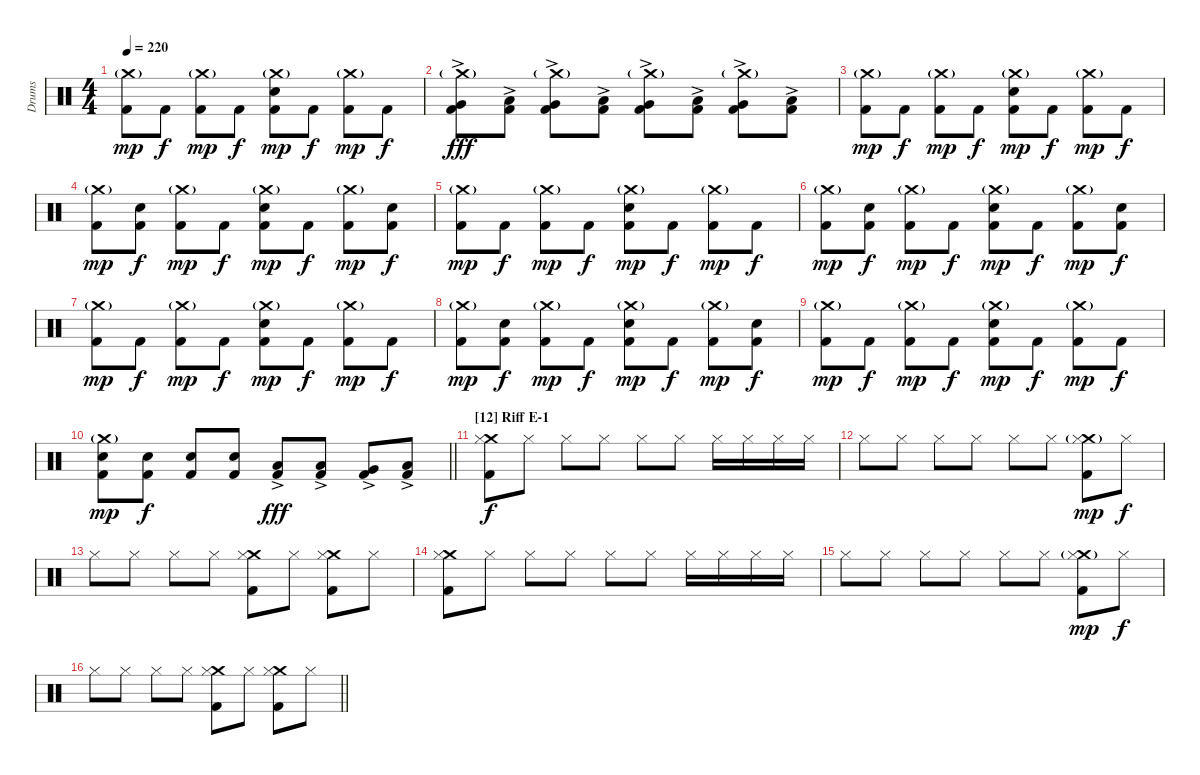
\track ("Drums" "Drums") {instrument percussion}
\staff {score}
\articulation defaults
\ts (4 4)
\tempo 220
\clef neutral
\ks c
("Crash medium (hit)"{g} "Kick (hit) 2").8{dy mp} "Kick (hit) 2".8{dy f} ("Crash medium (hit)"{g} "Kick (hit) 2").8{dy mp} "Kick (hit) 2".8{dy f} ("Crash medium (hit)"{g} "Snare (hit) 2" "Kick (hit) 2").8{dy mp} "Kick (hit) 2".8{dy f} ("Crash medium (hit)"{g} "Kick (hit) 2").8{dy mp} "Kick (hit) 2".8{dy f} |
("Crash medium (hit)"{g} "Very Low Tom (hit)"{ac} "Kick (hit) 2").8{dy fff} ("Low Floor Tom (hit)"{ac} "Kick (hit) 2").8 ("Crash medium (hit)"{g} "Very Low Tom (hit)"{ac} "Kick (hit) 2").8 ("Low Tom (hit)"{ac} "Kick (hit) 2").8 ("Crash medium (hit)"{g} "Very Low Tom (hit)"{ac} "Kick (hit) 2").8 ("Low Floor Tom (hit)"{ac} "Kick (hit) 2").8 ("Crash medium (hit)"{g} "Very Low Tom (hit)"{ac} "Kick (hit) 2").8 ("Low Tom (hit)"{ac} "Kick (hit) 2").8 |
("Crash medium (hit)"{g} "Kick (hit) 2").8{dy mp} "Kick (hit) 2".8{dy f} ("Crash medium (hit)"{g} "Kick (hit) 2").8{dy mp} "Kick (hit) 2".8{dy f} ("Crash medium (hit)"{g} "Snare (hit) 2" "Kick (hit) 2").8{dy mp} "Kick (hit) 2".8{dy f} ("Crash medium (hit)"{g} "Kick (hit) 2").8{dy mp} "Kick (hit) 2".8{dy f} |
("Crash medium (hit)"{g} "Kick (hit) 2").8{dy mp} ("Snare (hit) 2" "Kick (hit) 2").8{dy f} ("Crash medium (hit)"{g} "Kick (hit) 2").8{dy mp} "Kick (hit) 2".8{dy f} ("Crash medium (hit)"{g} "Snare (hit) 2" "Kick (hit) 2").8{dy mp} "Kick (hit) 2".8{dy f} ("Crash medium (hit)"{g} "Kick (hit) 2").8{dy mp} ("Snare (hit) 2" "Kick (hit) 2").8{dy f} |
("Crash medium (hit)"{g} "Kick (hit) 2").8{dy mp} "Kick (hit) 2".8{dy f} ("Crash medium (hit)"{g} "Kick (hit) 2").8{dy mp} "Kick (hit) 2".8{dy f} ("Crash medium (hit)"{g} "Snare (hit) 2" "Kick (hit) 2").8{dy mp} "Kick (hit) 2".8{dy f} ("Crash medium (hit)"{g} "Kick (hit) 2").8{dy mp} "Kick (hit) 2".8{dy f} |
("Crash medium (hit)"{g} "Kick (hit) 2").8{dy mp} ("Snare (hit) 2" "Kick (hit) 2").8{dy f} ("Crash medium (hit)"{g} "Kick (hit) 2").8{dy mp} "Kick (hit) 2".8{dy f} ("Crash medium (hit)"{g} "Snare (hit) 2" "Kick (hit) 2").8{dy mp} "Kick (hit) 2".8{dy f} ("Crash medium (hit)"{g} "Kick (hit) 2").8{dy mp} ("Snare (hit) 2" "Kick (hit) 2").8{dy f} |
("Crash medium (hit)"{g} "Kick (hit) 2").8{dy mp} "Kick (hit) 2".8{dy f} ("Crash medium (hit)"{g} "Kick (hit) 2").8{dy mp} "Kick (hit) 2".8{dy f} ("Crash medium (hit)"{g} "Snare (hit) 2" "Kick (hit) 2").8{dy mp} "Kick (hit) 2".8{dy f} ("Crash medium (hit)"{g} "Kick (hit) 2").8{dy mp} "Kick (hit) 2".8{dy f} |
("Crash medium (hit)"{g} "Kick (hit) 2").8{dy mp} ("Snare (hit) 2" "Kick (hit) 2").8{dy f} ("Crash medium (hit)"{g} "Kick (hit) 2").8{dy mp} "Kick (hit) 2".8{dy f} ("Crash medium (hit)"{g} "Snare (hit) 2" "Kick (hit) 2").8{dy mp} "Kick (hit) 2".8{dy f} ("Crash medium (hit)"{g} "Kick (hit) 2").8{dy mp} ("Snare (hit) 2" "Kick (hit) 2").8{dy f} |
("Crash medium (hit)"{g} "Kick (hit) 2").8{dy mp} "Kick (hit) 2".8{dy f} ("Crash medium (hit)"{g} "Kick (hit) 2").8{dy mp} "Kick (hit) 2".8{dy f} ("Crash medium (hit)"{g} "Snare (hit) 2" "Kick (hit) 2").8{dy mp} "Kick (hit) 2".8{dy f} ("Crash medium (hit)"{g} "Kick (hit) 2").8{dy mp} "Kick (hit) 2".8{dy f} |
\barLineRight lightlight
("Crash medium (hit)"{g} "Snare (hit) 2" "Kick (hit) 2").8{dy mp} ("Snare (hit) 2" "Kick (hit) 2").8{dy f} ("Snare (hit) 2" "Kick (hit) 2").8 ("Snare (hit) 2" "Kick (hit) 2").8 ("Low Tom (hit)"{ac} "Kick (hit) 2").8{dy fff} ("Low Tom (hit)"{ac} "Kick (hit) 2").8 ("Very Low Tom (hit)"{ac} "Kick (hit) 2").8 ("Low Floor Tom (hit)"{ac} "Kick (hit) 2").8 |
\section ("" "[12] Riff E-1")
("Crash medium (hit)" "Hi-Hat (closed)" "Kick (hit) 2").8{dy f} "Hi-Hat (closed)".8 "Hi-Hat (closed)".8 "Hi-Hat (closed)".8 "Hi-Hat (closed)".8 "Hi-Hat (closed)".8 "Hi-Hat (closed)".16 "Hi-Hat (closed)".16 "Hi-Hat (closed)".16 "Hi-Hat (closed)".16 |
"Hi-Hat (closed)".8 "Hi-Hat (closed)".8 "Hi-Hat (closed)".8 "Hi-Hat (closed)".8 "Hi-Hat (closed)".8 "Hi-Hat (closed)".8 ("Crash medium (hit)"{g} "Hi-Hat (closed)" "Kick (hit) 2").8{dy mp} "Hi-Hat (closed)".8{dy f} |
"Hi-Hat (closed)".8 "Hi-Hat (closed)".8 "Hi-Hat (closed)".8 "Hi-Hat (closed)".8 ("Crash medium (hit)" "Hi-Hat (closed)" "Kick (hit) 2").8 "Hi-Hat (closed)".8 ("Crash medium (hit)" "Hi-Hat (closed)" "Kick (hit) 2").8 "Hi-Hat (closed)".8 |
("Crash medium (hit)" "Hi-Hat (closed)" "Kick (hit) 2").8 "Hi-Hat (closed)".8 "Hi-Hat (closed)".8 "Hi-Hat (closed)".8 "Hi-Hat (closed)".8 "Hi-Hat (closed)".8 "Hi-Hat (closed)".16 "Hi-Hat (closed)".16 "Hi-Hat (closed)".16 "Hi-Hat (closed)".16 |
"Hi-Hat (closed)".8 "Hi-Hat (closed)".8 "Hi-Hat (closed)".8 "Hi-Hat (closed)".8 "Hi-Hat (closed)".8 "Hi-Hat (closed)".8 ("Crash medium (hit)"{g} "Hi-Hat (closed)" "Kick (hit) 2").8{dy mp} "Hi-Hat (closed)".8{dy f} |
\barLineRight lightlight "Hi-Hat (closed)".8 "Hi-Hat (closed)".8 "Hi-Hat (closed)".8 "Hi-Hat (closed)".8
("Crash medium (hit)" "Hi-Hat (closed)" "Kick (hit) 2").8 "Hi-Hat (closed)".8 ("Crash medium (hit)" "Hi-Hat (closed)" "Kick (hit) 2").8 "Hi-Hat (closed)".8
